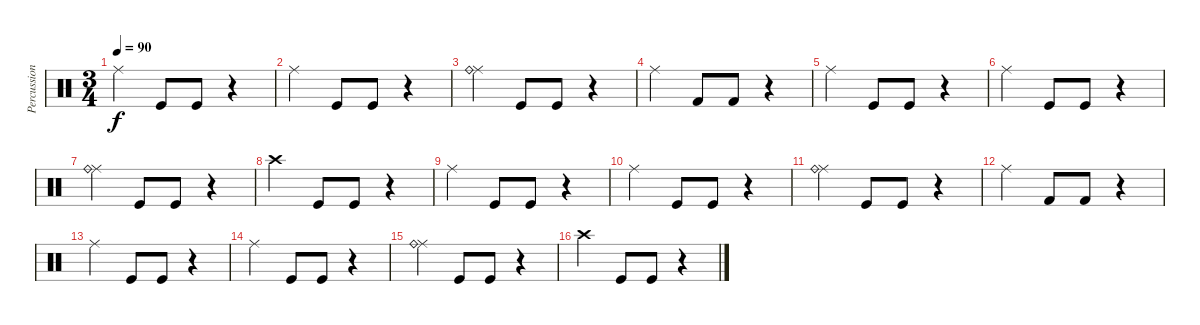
\track ("Percussion" "Percussion") {instrument percussion}
\staff {score}
\articulation defaults
\ts (3 4)
\tempo 90
\clef neutral
\ks c "Ride (middle)".4{dy f} "Kick (hit)".8 "Kick (hit)".8
r.4 |
"Ride (middle)".4 "Kick (hit)".8 "Kick (hit)".8 r.4 |
("Ride (middle)" "Ride (bell)").4 "Kick (hit)".8 "Kick (hit)".8 r.4 |
"Ride (middle)".4 "Kick (hit) 2".8 "Kick (hit) 2".8 r.4 |
"Ride (middle)".4 "Kick (hit)".8 "Kick (hit)".8 r.4 |
"Ride (middle)".4 "Kick (hit)".8 "Kick (hit)".8 r.4 |
("Ride (middle)" "Ride (bell)").4 "Kick (hit)".8 "Kick (hit)".8 r.4 |
"Crash high (hit)".4 "Kick (hit)".8 "Kick (hit)".8 r.4 |
"Ride (middle)".4 "Kick (hit)".8 "Kick (hit)".8 r.4 |
"Ride (middle)".4 "Kick (hit)".8 "Kick (hit)".8 r.4 |
("Ride (middle)" "Ride (bell)").4 "Kick (hit)".8 "Kick (hit)".8 r.4 |
"Ride (middle)".4 "Kick (hit) 2".8 "Kick (hit) 2".8 r.4 |
"Ride (middle)".4 "Kick (hit)".8 "Kick (hit)".8 r.4 |
"Ride (middle)".4 "Kick (hit)".8 "Kick (hit)".8 r.4 |
("Ride (middle)" "Ride (bell)").4 "Kick (hit)".8 "Kick (hit)".8 r.4 |
"Crash high (hit)".4 "Kick (hit)".8 "Kick (hit)".8 r.4
